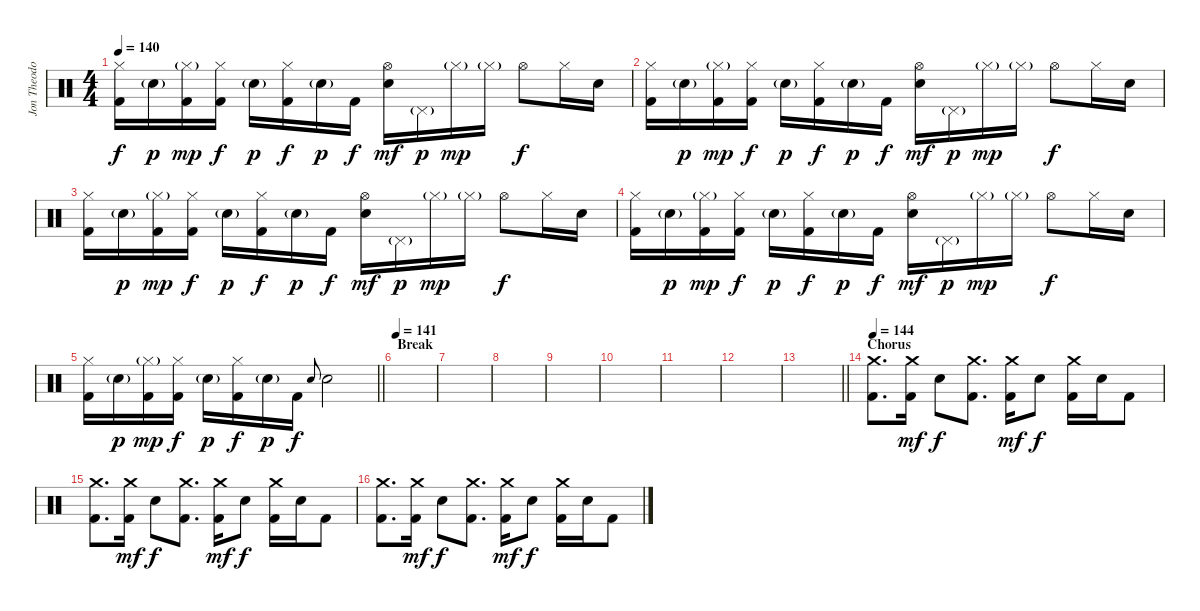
\track ("Jon Theodore - Drums" "Jon Theodo") {instrument percussion}
\staff {score}
\articulation defaults
\ts (4 4)
\tempo 140
\clef neutral
\ks c
("Hi-Hat (closed)" "Kick (hit) 2").16{dy f} "Electric Snare (hit)"{g}.16{dy p} ("Hi-Hat (closed)"{g} "Kick (hit) 2").16{dy mp} ("Hi-Hat (closed)" "Kick (hit) 2").16{dy f} "Electric Snare (hit)"{g}.16{dy p} ("Hi-Hat (closed)" "Kick (hit) 2").16{dy f} "Electric Snare (hit)"{g}.16{dy p} "Kick (hit) 2".16{dy f} ("Hi-Hat (open)" "Electric Snare (hit)").16{dy mf} "Pedal Hi-Hat (hit)"{g}.16{dy p} "Hi-Hat (closed)"{g}.16{dy mp} "Hi-Hat (closed)"{g}.16 "Hi-Hat (open)".8{dy f} "Hi-Hat (closed)".16 "Electric Snare (hit)".16 |
("Hi-Hat (closed)" "Kick (hit) 2").16 "Electric Snare (hit)"{g}.16{dy p} ("Hi-Hat (closed)"{g} "Kick (hit) 2").16{dy mp} ("Hi-Hat (closed)" "Kick (hit) 2").16{dy f} "Electric Snare (hit)"{g}.16{dy p} ("Hi-Hat (closed)" "Kick (hit) 2").16{dy f} "Electric Snare (hit)"{g}.16{dy p} "Kick (hit) 2".16{dy f} ("Hi-Hat (open)" "Electric Snare (hit)").16{dy mf} "Pedal Hi-Hat (hit)"{g}.16{dy p} "Hi-Hat (closed)"{g}.16{dy mp} "Hi-Hat (closed)"{g}.16 "Hi-Hat (open)".8{dy f} "Hi-Hat (closed)".16 "Electric Snare (hit)".16 |
("Hi-Hat (closed)" "Kick (hit) 2").16 "Electric Snare (hit)"{g}.16{dy p} ("Hi-Hat (closed)"{g} "Kick (hit) 2").16{dy mp} ("Hi-Hat (closed)" "Kick (hit) 2").16{dy f} "Electric Snare (hit)"{g}.16{dy p} ("Hi-Hat (closed)" "Kick (hit) 2").16{dy f} "Electric Snare (hit)"{g}.16{dy p} "Kick (hit) 2".16{dy f} ("Hi-Hat (open)" "Electric Snare (hit)").16{dy mf} "Pedal Hi-Hat (hit)"{g}.16{dy p} "Hi-Hat (closed)"{g}.16{dy mp} "Hi-Hat (closed)"{g}.16 "Hi-Hat (open)".8{dy f} "Hi-Hat (closed)".16 "Electric Snare (hit)".16 |
("Hi-Hat (closed)" "Kick (hit) 2").16 "Electric Snare (hit)"{g}.16{dy p} ("Hi-Hat (closed)"{g} "Kick (hit) 2").16{dy mp} ("Hi-Hat (closed)" "Kick (hit) 2").16{dy f} "Electric Snare (hit)"{g}.16{dy p} ("Hi-Hat (closed)" "Kick (hit) 2").16{dy f} "Electric Snare (hit)"{g}.16{dy p} "Kick (hit) 2".16{dy f} ("Hi-Hat (open)" "Electric Snare (hit)").16{dy mf} "Pedal Hi-Hat (hit)"{g}.16{dy p} "Hi-Hat (closed)"{g}.16{dy mp} "Hi-Hat (closed)"{g}.16 "Hi-Hat (open)".8{dy f} "Hi-Hat (closed)".16 "Electric Snare (hit)".16 |
\barLineRight lightlight
("Hi-Hat (closed)" "Kick (hit) 2").16 "Electric Snare (hit)"{g}.16{dy p} ("Hi-Hat (closed)"{g} "Kick (hit) 2").16{dy mp} ("Hi-Hat (closed)" "Kick (hit) 2").16{dy f} "Electric Snare (hit)"{g}.16{dy p} ("Hi-Hat (closed)" "Kick (hit) 2").16{dy f} "Electric Snare (hit)"{g}.16{dy p} "Kick (hit) 2".16{dy f} "Electric Snare (hit)".8{gr onbeat} "Electric Snare (hit)".2 |
\section ("" "Break")
\tempo 141
|
|
|
|
|
|
|
\barLineRight lightlight
|
\section ("" "Chorus")
\tempo 144
("Crash medium (hit)" "Kick (hit) 2").8{d} ("Crash medium (hit)" "Kick (hit) 2").16{dy mf} "Electric Snare (hit)".8{dy f} ("Crash medium (hit)" "Kick (hit) 2").8{d} ("Crash medium (hit)" "Kick (hit) 2").16{dy mf} "Electric Snare (hit)".8{dy f} ("Crash medium (hit)" "Kick (hit) 2").16 "Electric Snare (hit)".16 "Kick (hit) 2".8 |
("Crash medium (hit)" "Kick (hit) 2").8{d} ("Crash medium (hit)" "Kick (hit) 2").16{dy mf} "Electric Snare (hit)".8{dy f} ("Crash medium (hit)" "Kick (hit) 2").8{d} ("Crash medium (hit)" "Kick (hit) 2").16{dy mf} "Electric Snare (hit)".8{dy f} ("Crash medium (hit)" "Kick (hit) 2").16 "Electric Snare (hit)".16 "Kick (hit) 2".8 |
("Crash medium (hit)" "Kick (hit) 2").8{d} ("Crash medium (hit)" "Kick (hit) 2").16{dy mf} "Electric Snare (hit)".8{dy f} ("Crash medium (hit)" "Kick (hit) 2").8{d} ("Crash medium (hit)" "Kick (hit) 2").16{dy mf} "Electric Snare (hit)".8{dy f} ("Crash medium (hit)" "Kick (hit) 2").16 "Electric Snare (hit)".16 "Kick (hit) 2".8
